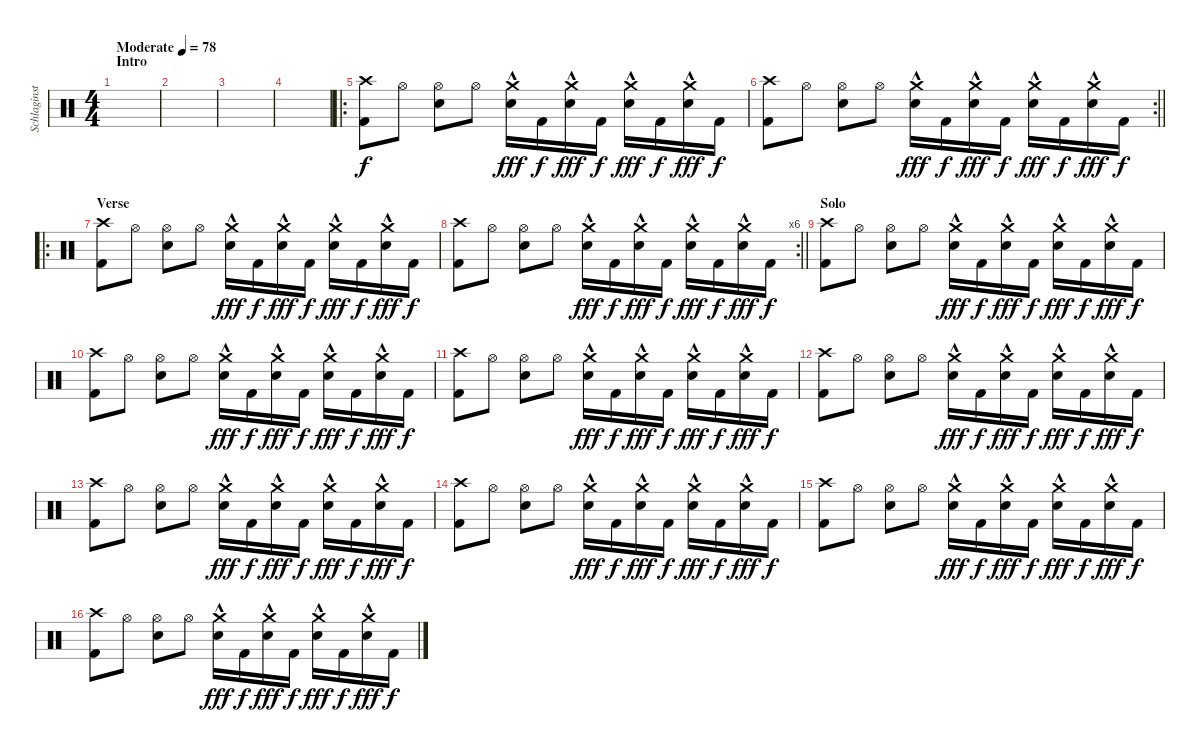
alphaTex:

\track ("Schlaginstrumente - Auswahl" "Schlaginst") {instrument percussion}
\staff {score}
\articulation defaults
\ts (4 4)
\section ("" "Intro")
\tempo (78 "Moderate")
\clef neutral
\ks c
|
|
|
|
\ro
("Crash high (hit)" "Kick (hit) 2").8 "Hi-Hat (open)".8 ("Hi-Hat (open)" "Snare (hit) 2").8 "Hi-Hat (open)".8 ("Crash medium (hit)" "Snare (hit) 2"{hac}).16{dy fff} "Kick (hit) 2".16{dy f} ("Crash medium (hit)" "Snare (hit) 2"{hac}).16{dy fff} "Kick (hit) 2".16{dy f} ("Crash medium (hit)" "Snare (hit) 2"{hac}).16{dy fff} "Kick (hit) 2".16{dy f} ("Crash medium (hit)" "Snare (hit) 2"{hac}).16{dy fff} "Kick (hit) 2".16{dy f} |
\rc 2
\barLineRight lightlight
("Crash high (hit)" "Kick (hit) 2").8 "Hi-Hat (open)".8 ("Hi-Hat (open)" "Snare (hit) 2").8 "Hi-Hat (open)".8 ("Crash medium (hit)" "Snare (hit) 2"{hac}).16{dy fff} "Kick (hit) 2".16{dy f} ("Crash medium (hit)" "Snare (hit) 2"{hac}).16{dy fff} "Kick (hit) 2".16{dy f} ("Crash medium (hit)" "Snare (hit) 2"{hac}).16{dy fff} "Kick (hit) 2".16{dy f} ("Crash medium (hit)" "Snare (hit) 2"{hac}).16{dy fff} "Kick (hit) 2".16{dy f} |
\ro
\section ("" "Verse")
("Crash high (hit)" "Kick (hit) 2").8 "Hi-Hat (open)".8 ("Hi-Hat (open)" "Snare (hit) 2").8 "Hi-Hat (open)".8 ("Crash medium (hit)" "Snare (hit) 2"{hac}).16{dy fff} "Kick (hit) 2".16{dy f} ("Crash medium (hit)" "Snare (hit) 2"{hac}).16{dy fff} "Kick (hit) 2".16{dy f} ("Crash medium (hit)" "Snare (hit) 2"{hac}).16{dy fff} "Kick (hit) 2".16{dy f} ("Crash medium (hit)" "Snare (hit) 2"{hac}).16{dy fff} "Kick (hit) 2".16{dy f} |
\rc 6
\barLineRight lightlight
("Crash high (hit)" "Kick (hit) 2").8 "Hi-Hat (open)".8 ("Hi-Hat (open)" "Snare (hit) 2").8 "Hi-Hat (open)".8 ("Crash medium (hit)" "Snare (hit) 2"{hac}).16{dy fff} "Kick (hit) 2".16{dy f} ("Crash medium (hit)" "Snare (hit) 2"{hac}).16{dy fff} "Kick (hit) 2".16{dy f} ("Crash medium (hit)" "Snare (hit) 2"{hac}).16{dy fff} "Kick (hit) 2".16{dy f} ("Crash medium (hit)" "Snare (hit) 2"{hac}).16{dy fff} "Kick (hit) 2".16{dy f} |
\section ("" "Solo")
("Crash high (hit)" "Kick (hit) 2").8 "Hi-Hat (open)".8 ("Hi-Hat (open)" "Snare (hit) 2").8 "Hi-Hat (open)".8 ("Crash medium (hit)" "Snare (hit) 2"{hac}).16{dy fff} "Kick (hit) 2".16{dy f} ("Crash medium (hit)" "Snare (hit) 2"{hac}).16{dy fff} "Kick (hit) 2".16{dy f} ("Crash medium (hit)" "Snare (hit) 2"{hac}).16{dy fff} "Kick (hit) 2".16{dy f} ("Crash medium (hit)" "Snare (hit) 2"{hac}).16{dy fff} "Kick (hit) 2".16{dy f} |
("Crash high (hit)" "Kick (hit) 2").8 "Hi-Hat (open)".8 ("Hi-Hat (open)" "Snare (hit) 2").8 "Hi-Hat (open)".8 ("Crash medium (hit)" "Snare (hit) 2"{hac}).16{dy fff} "Kick (hit) 2".16{dy f} ("Crash medium (hit)" "Snare (hit) 2"{hac}).16{dy fff} "Kick (hit) 2".16{dy f} ("Crash medium (hit)" "Snare (hit) 2"{hac}).16{dy fff} "Kick (hit) 2".16{dy f} ("Crash medium (hit)" "Snare (hit) 2"{hac}).16{dy fff} "Kick (hit) 2".16{dy f} |
("Crash high (hit)" "Kick (hit) 2").8 "Hi-Hat (open)".8 ("Hi-Hat (open)" "Snare (hit) 2").8 "Hi-Hat (open)".8 ("Crash medium (hit)" "Snare (hit) 2"{hac}).16{dy fff} "Kick (hit) 2".16{dy f} ("Crash medium (hit)" "Snare (hit) 2"{hac}).16{dy fff} "Kick (hit) 2".16{dy f} ("Crash medium (hit)" "Snare (hit) 2"{hac}).16{dy fff} "Kick (hit) 2".16{dy f} ("Crash medium (hit)" "Snare (hit) 2"{hac}).16{dy fff} "Kick (hit) 2".16{dy f} |
("Crash high (hit)" "Kick (hit) 2").8 "Hi-Hat (open)".8 ("Hi-Hat (open)" "Snare (hit) 2").8 "Hi-Hat (open)".8 ("Crash medium (hit)" "Snare (hit) 2"{hac}).16{dy fff} "Kick (hit) 2".16{dy f} ("Crash medium (hit)" "Snare (hit) 2"{hac}).16{dy fff} "Kick (hit) 2".16{dy f} ("Crash medium (hit)" "Snare (hit) 2"{hac}).16{dy fff} "Kick (hit) 2".16{dy f} ("Crash medium (hit)" "Snare (hit) 2"{hac}).16{dy fff} "Kick (hit) 2".16{dy f} |
("Crash high (hit)" "Kick (hit) 2").8 "Hi-Hat (open)".8 ("Hi-Hat (open)" "Snare (hit) 2").8 "Hi-Hat (open)".8 ("Crash medium (hit)" "Snare (hit) 2"{hac}).16{dy fff} "Kick (hit) 2".16{dy f} ("Crash medium (hit)" "Snare (hit) 2"{hac}).16{dy fff} "Kick (hit) 2".16{dy f} ("Crash medium (hit)" "Snare (hit) 2"{hac}).16{dy fff} "Kick (hit) 2".16{dy f} ("Crash medium (hit)" "Snare (hit) 2"{hac}).16{dy fff} "Kick (hit) 2".16{dy f} |
("Crash high (hit)" "Kick (hit) 2").8 "Hi-Hat (open)".8 ("Hi-Hat (open)" "Snare (hit) 2").8 "Hi-Hat (open)".8 ("Crash medium (hit)" "Snare (hit) 2"{hac}).16{dy fff} "Kick (hit) 2".16{dy f} ("Crash medium (hit)" "Snare (hit) 2"{hac}).16{dy fff} "Kick (hit) 2".16{dy f} ("Crash medium (hit)" "Snare (hit) 2"{hac}).16{dy fff} "Kick (hit) 2".16{dy f} ("Crash medium (hit)" "Snare (hit) 2"{hac}).16{dy fff} "Kick (hit) 2".16{dy f} |
("Crash high (hit)" "Kick (hit) 2").8 "Hi-Hat (open)".8 ("Hi-Hat (open)" "Snare (hit) 2").8 "Hi-Hat (open)".8 ("Crash medium (hit)" "Snare (hit) 2"{hac}).16{dy fff} "Kick (hit) 2".16{dy f} ("Crash medium (hit)" "Snare (hit) 2"{hac}).16{dy fff} "Kick (hit) 2".16{dy f} ("Crash medium (hit)" "Snare (hit) 2"{hac}).16{dy fff} "Kick (hit) 2".16{dy f} ("Crash medium (hit)" "Snare (hit) 2"{hac}).16{dy fff} "Kick (hit) 2".16{dy f} |
("Crash high (hit)" "Kick (hit) 2").8 "Hi-Hat (open)".8 ("Hi-Hat (open)" "Snare (hit) 2").8 "Hi-Hat (open)".8 ("Crash medium (hit)" "Snare (hit) 2"{hac}).16{dy fff} "Kick (hit) 2".16{dy f} ("Crash medium (hit)" "Snare (hit) 2"{hac}).16{dy fff} "Kick (hit) 2".16{dy f} ("Crash medium (hit)" "Snare (hit) 2"{hac}).16{dy fff} "Kick (hit) 2".16{dy f} ("Crash medium (hit)" "Snare (hit) 2"{hac}).16{dy fff} "Kick (hit) 2".16{dy f}
